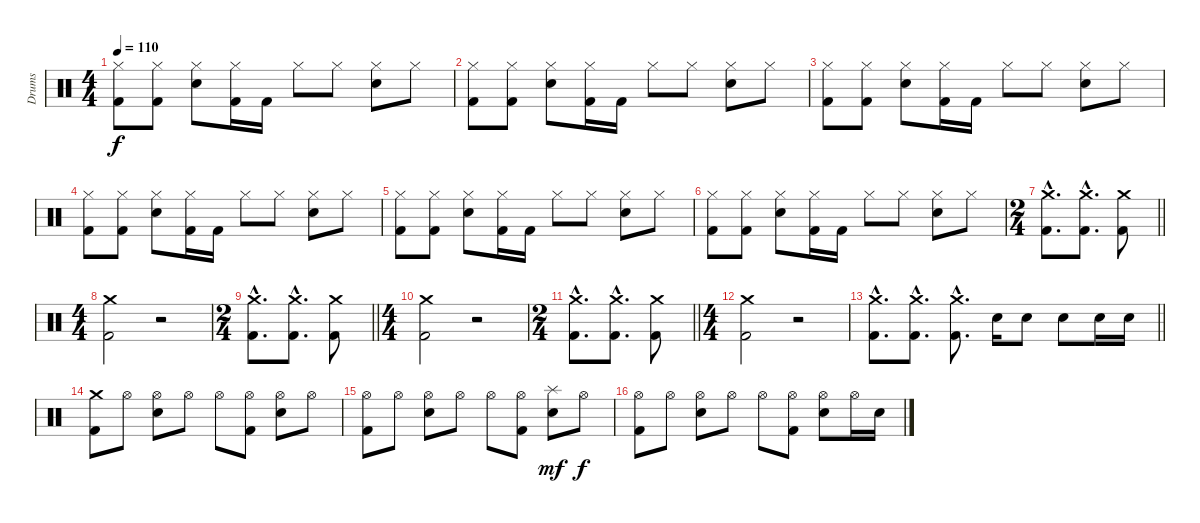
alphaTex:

\track ("Drums" "Drums") {instrument percussion}
\staff {score}
\articulation defaults
\ts (4 4)
\tempo 110
\clef neutral
\ks c
("Hi-Hat (closed)" "Kick (hit) 2").8{dy f} ("Hi-Hat (closed)" "Kick (hit) 2").8 ("Hi-Hat (closed)" "Snare (hit) 2").8 ("Hi-Hat (closed)" "Kick (hit) 2").16 "Kick (hit) 2".16 "Hi-Hat (closed)".8 "Hi-Hat (closed)".8 ("Hi-Hat (closed)" "Snare (hit) 2").8 "Hi-Hat (closed)".8 |
("Hi-Hat (closed)" "Kick (hit) 2").8 ("Hi-Hat (closed)" "Kick (hit) 2").8 ("Hi-Hat (closed)" "Snare (hit) 2").8 ("Hi-Hat (closed)" "Kick (hit) 2").16 "Kick (hit) 2".16 "Hi-Hat (closed)".8 "Hi-Hat (closed)".8 ("Hi-Hat (closed)" "Snare (hit) 2").8 "Hi-Hat (closed)".8 |
("Hi-Hat (closed)" "Kick (hit) 2").8 ("Hi-Hat (closed)" "Kick (hit) 2").8 ("Hi-Hat (closed)" "Snare (hit) 2").8 ("Hi-Hat (closed)" "Kick (hit) 2").16 "Kick (hit) 2".16 "Hi-Hat (closed)".8 "Hi-Hat (closed)".8 ("Hi-Hat (closed)" "Snare (hit) 2").8 "Hi-Hat (closed)".8 |
("Hi-Hat (closed)" "Kick (hit) 2").8 ("Hi-Hat (closed)" "Kick (hit) 2").8 ("Hi-Hat (closed)" "Snare (hit) 2").8 ("Hi-Hat (closed)" "Kick (hit) 2").16 "Kick (hit) 2".16 "Hi-Hat (closed)".8 "Hi-Hat (closed)".8 ("Hi-Hat (closed)" "Snare (hit) 2").8 "Hi-Hat (closed)".8 |
("Hi-Hat (closed)" "Kick (hit) 2").8 ("Hi-Hat (closed)" "Kick (hit) 2").8 ("Hi-Hat (closed)" "Snare (hit) 2").8 ("Hi-Hat (closed)" "Kick (hit) 2").16 "Kick (hit) 2".16 "Hi-Hat (closed)".8 "Hi-Hat (closed)".8 ("Hi-Hat (closed)" "Snare (hit) 2").8 "Hi-Hat (closed)".8 |
("Hi-Hat (closed)" "Kick (hit) 2").8 ("Hi-Hat (closed)" "Kick (hit) 2").8 ("Hi-Hat (closed)" "Snare (hit) 2").8 ("Hi-Hat (closed)" "Kick (hit) 2").16 "Kick (hit) 2".16 "Hi-Hat (closed)".8 "Hi-Hat (closed)".8 ("Hi-Hat (closed)" "Snare (hit) 2").8 "Hi-Hat (closed)".8 |
\ts (2 4)
\barLineRight lightlight
("Crash medium (hit)"{hac} "Kick (hit) 2"{hac}).8{d} ("Crash medium (hit)"{hac} "Kick (hit) 2"{hac}).8{d} ("Crash medium (hit)" "Kick (hit) 2").8 |
\ts (4 4)
("Crash medium (hit)" "Kick (hit) 2").2 r.2 |
\ts (2 4)
\barLineRight lightlight
("Crash medium (hit)"{hac} "Kick (hit) 2"{hac}).8{d} ("Crash medium (hit)"{hac} "Kick (hit) 2"{hac}).8{d} ("Crash medium (hit)" "Kick (hit) 2").8 |
\ts (4 4)
("Crash medium (hit)" "Kick (hit) 2").2 r.2 |
\ts (2 4)
\barLineRight lightlight
("Crash medium (hit)"{hac} "Kick (hit) 2"{hac}).8{d} ("Crash medium (hit)"{hac} "Kick (hit) 2"{hac}).8{d} ("Crash medium (hit)" "Kick (hit) 2").8 |
\ts (4 4)
("Crash medium (hit)" "Kick (hit) 2").2 r.2 |
\barLineRight lightlight
("Crash medium (hit)"{hac} "Kick (hit) 2"{hac}).8{d} ("Crash medium (hit)"{hac} "Kick (hit) 2"{hac}).8{d} ("Crash medium (hit)"{hac} "Kick (hit) 2"{hac}).8{d} "Snare (hit) 2".16 "Snare (hit) 2".8 "Snare (hit) 2".8 "Snare (hit) 2".16 "Snare (hit) 2".16 |
("Crash medium (hit)" "Kick (hit) 2").8 "Hi-Hat (open)".8 ("Hi-Hat (open)" "Snare (hit) 2").8 "Hi-Hat (open)".8 "Hi-Hat (open)".8 ("Hi-Hat (open)" "Kick (hit) 2").8 ("Hi-Hat (open)" "Snare (hit) 2").8 "Hi-Hat (open)".8 |
("Hi-Hat (open)" "Kick (hit) 2").8 "Hi-Hat (open)".8 ("Hi-Hat (open)" "Snare (hit) 2").8 "Hi-Hat (open)".8 "Hi-Hat (open)".8 ("Hi-Hat (open)" "Kick (hit) 2").8 ("Splash (hit)" "Snare (hit) 2").8{dy mf} "Hi-Hat (open)".8{dy f} |
("Hi-Hat (open)" "Kick (hit) 2").8 "Hi-Hat (open)".8 ("Hi-Hat (open)" "Snare (hit) 2").8 "Hi-Hat (open)".8 "Hi-Hat (open)".8 ("Hi-Hat (open)" "Kick (hit) 2").8 ("Hi-Hat (open)" "Snare (hit) 2").8 "Hi-Hat (open)".16 "Snare (hit) 2".16
